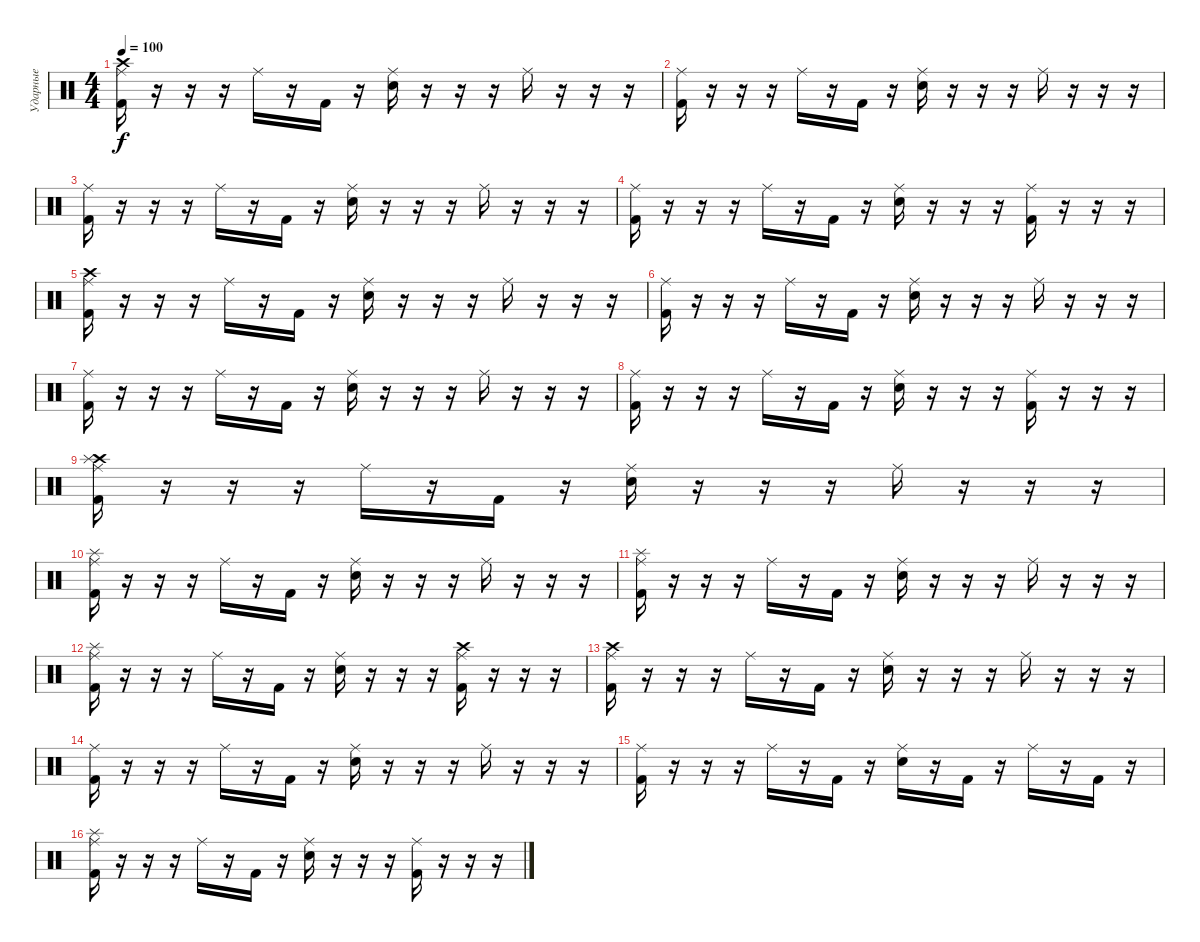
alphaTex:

\track ("Ударные" "Ударные") {instrument percussion}
\staff {score}
\articulation defaults
\ts (4 4)
\tempo 100
\clef neutral
\ks c
("Ride (middle)" "Crash high (hit)" "Kick (hit) 2").16{dy f} r.16 r.16 r.16 "Ride (middle)".16 r.16 "Kick (hit) 2".16 r.16 ("Ride (middle)" "Snare (hit) 2").16 r.16 r.16 r.16 "Ride (middle)".16 r.16 r.16 r.16 |
("Ride (middle)" "Kick (hit) 2").16 r.16 r.16 r.16 "Ride (middle)".16 r.16 "Kick (hit) 2".16 r.16 ("Ride (middle)" "Snare (hit) 2").16 r.16 r.16 r.16 "Ride (middle)".16 r.16 r.16 r.16 |
("Ride (middle)" "Kick (hit) 2").16 r.16 r.16 r.16 "Ride (middle)".16 r.16 "Kick (hit) 2".16 r.16 ("Ride (middle)" "Snare (hit) 2").16 r.16 r.16 r.16 "Ride (middle)".16 r.16 r.16 r.16 |
("Ride (middle)" "Kick (hit) 2").16 r.16 r.16 r.16 "Ride (middle)".16 r.16 "Kick (hit) 2".16 r.16 ("Ride (middle)" "Snare (hit) 2").16 r.16 r.16 r.16 ("Ride (middle)" "Kick (hit) 2").16 r.16 r.16 r.16 |
("Ride (middle)" "Crash high (hit)" "Kick (hit) 2").16 r.16 r.16 r.16 "Ride (middle)".16 r.16 "Kick (hit) 2".16 r.16 ("Ride (middle)" "Snare (hit) 2").16 r.16 r.16 r.16 "Ride (middle)".16 r.16 r.16 r.16 |
("Ride (middle)" "Kick (hit) 2").16 r.16 r.16 r.16 "Ride (middle)".16 r.16 "Kick (hit) 2".16 r.16 ("Ride (middle)" "Snare (hit) 2").16 r.16 r.16 r.16 "Ride (middle)".16 r.16 r.16 r.16 |
("Ride (middle)" "Kick (hit) 2").16 r.16 r.16 r.16 "Ride (middle)".16 r.16 "Kick (hit) 2".16 r.16 ("Ride (middle)" "Snare (hit) 2").16 r.16 r.16 r.16 "Ride (middle)".16 r.16 r.16 r.16 |
("Ride (middle)" "Kick (hit) 2").16 r.16 r.16 r.16 "Ride (middle)".16 r.16 "Kick (hit) 2".16 r.16 ("Ride (middle)" "Snare (hit) 2").16 r.16 r.16 r.16 ("Ride (middle)" "Kick (hit) 2").16 r.16 r.16 r.16 |
("Ride (middle)" "Crash high (hit)" "Splash (hit)" "Kick (hit) 2").16 r.16 r.16 r.16 "Ride (middle)".16 r.16 "Kick (hit) 2".16 r.16 ("Ride (middle)" "Snare (hit) 2").16 r.16 r.16 r.16 "Ride (middle)".16 r.16 r.16 r.16 |
("Ride (middle)" "Splash (hit)" "Kick (hit) 2").16 r.16 r.16 r.16 "Ride (middle)".16 r.16 "Kick (hit) 2".16 r.16 ("Ride (middle)" "Snare (hit) 2").16 r.16 r.16 r.16 "Ride (middle)".16 r.16 r.16 r.16 |
("Ride (middle)" "Splash (hit)" "Kick (hit) 2").16 r.16 r.16 r.16 "Ride (middle)".16 r.16 "Kick (hit) 2".16 r.16 ("Ride (middle)" "Snare (hit) 2").16 r.16 r.16 r.16 "Ride (middle)".16 r.16 r.16 r.16 |
("Ride (middle)" "Splash (hit)" "Kick (hit) 2").16 r.16 r.16 r.16 "Ride (middle)".16 r.16 "Kick (hit) 2".16 r.16 ("Ride (middle)" "Snare (hit) 2").16 r.16 r.16 r.16 ("Ride (middle)" "Crash high (hit)" "Kick (hit) 2").16 r.16 r.16 r.16 |
("Ride (middle)" "Crash high (hit)" "Kick (hit) 2").16 r.16 r.16 r.16 "Ride (middle)".16 r.16 "Kick (hit) 2".16 r.16 ("Ride (middle)" "Snare (hit) 2").16 r.16 r.16 r.16 "Ride (middle)".16 r.16 r.16 r.16 |
("Ride (middle)" "Kick (hit) 2").16 r.16 r.16 r.16 "Ride (middle)".16 r.16 "Kick (hit) 2".16 r.16 ("Ride (middle)" "Snare (hit) 2").16 r.16 r.16 r.16 "Ride (middle)".16 r.16 r.16 r.16 |
("Ride (middle)" "Kick (hit) 2").16 r.16 r.16 r.16 "Ride (middle)".16 r.16 "Kick (hit) 2".16 r.16 ("Ride (middle)" "Snare (hit) 2").16 r.16 "Kick (hit) 2".16 r.16 "Ride (middle)".16 r.16 "Kick (hit) 2".16 r.16 |
("Ride (middle)" "Splash (hit)" "Kick (hit) 2").16 r.16 r.16 r.16 "Ride (middle)".16 r.16 "Kick (hit) 2".16 r.16 ("Ride (middle)" "Snare (hit) 2").16 r.16 r.16 r.16 ("Ride (middle)" "Kick (hit) 2").16 r.16 r.16 r.16
